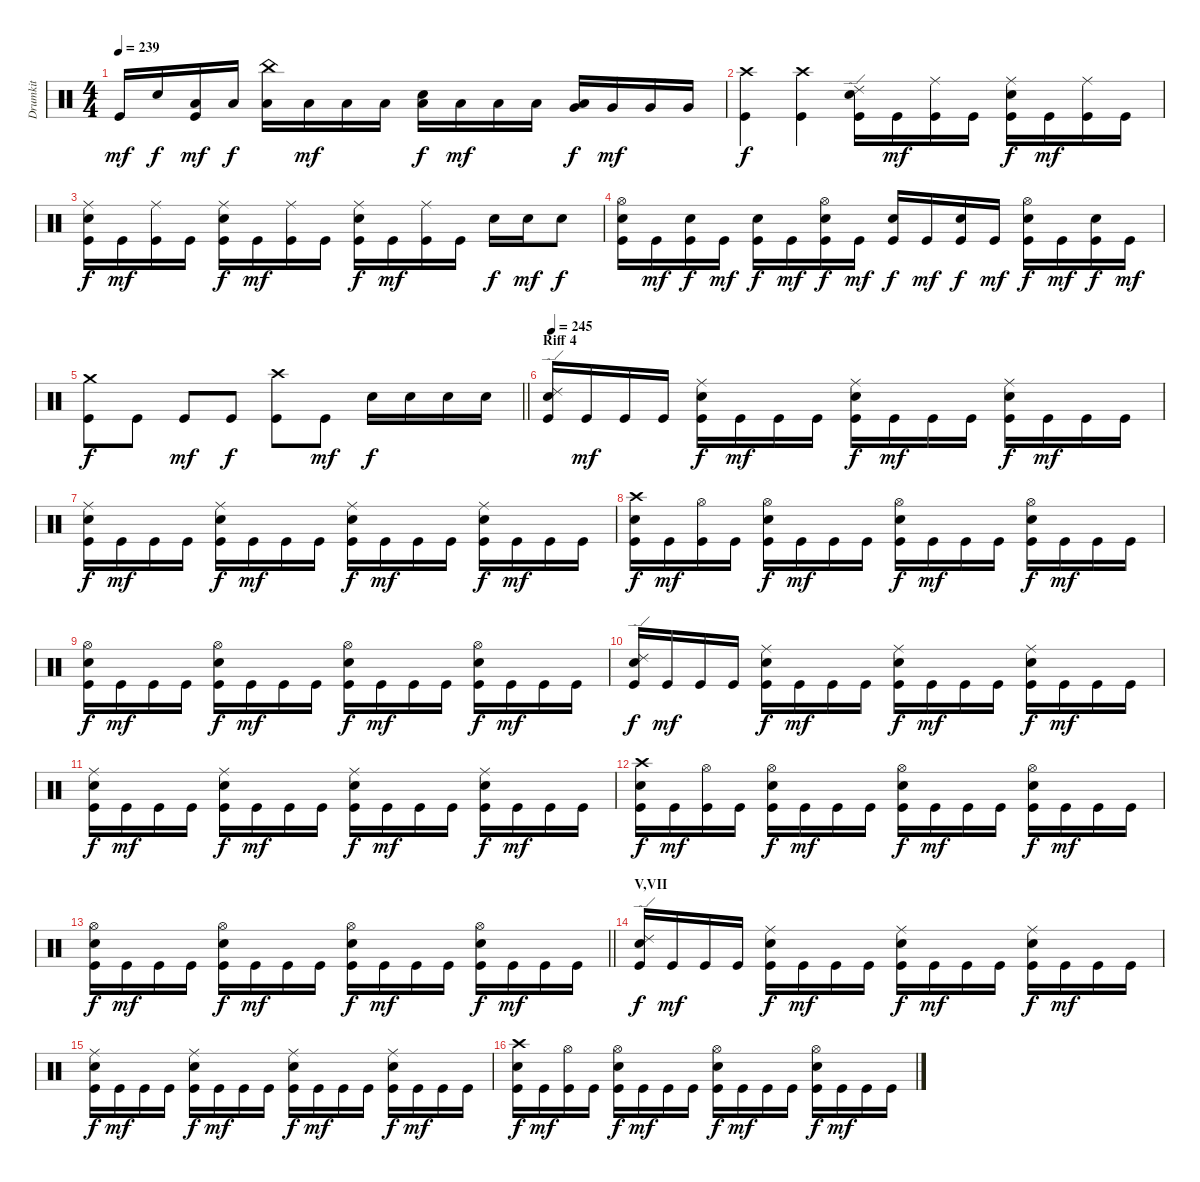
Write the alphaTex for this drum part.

\track ("Drumkit" "Drumkit") {instrument percussion}
\staff {score}
\articulation defaults
\ts (4 4)
\tempo 239
\clef neutral
\ks c "Kick (hit)".16{dy mf} "Snare (hit) 2".16{dy f}
("Kick (hit)" "Low Tom (hit)").16{dy mf} "Low Tom (hit)".16{dy f} ("Low Tom (hit)" "China (hit)").16 "Low Tom (hit)".16{dy mf} "Low Tom (hit)".16 "Low Tom (hit)".16 ("Low Tom (hit)" "Snare (hit) 2").16{dy f} "Low Tom (hit)".16{dy mf} "Low Tom (hit)".16 "Low Tom (hit)".16 ("Very Low Tom (hit)" "Low Floor Tom (hit)").16{dy f} "Very Low Tom (hit)".16{dy mf} "Very Low Tom (hit)".16 "Very Low Tom (hit)".16 |
("Kick (hit)" "Crash high (hit)").4{dy f} ("Kick (hit)" "Crash high (hit)").4 ("Kick (hit)" "Snare (hit) 2" "Ride (edge) 2").16 "Kick (hit)".16{dy mf} ("Kick (hit)" "Ride (middle)").16 "Kick (hit)".16 ("Kick (hit)" "Snare (hit) 2" "Ride (middle)").16{dy f} "Kick (hit)".16{dy mf} ("Kick (hit)" "Ride (middle)").16 "Kick (hit)".16 |
("Kick (hit)" "Snare (hit) 2" "Ride (middle)").16{dy f} "Kick (hit)".16{dy mf} ("Kick (hit)" "Ride (middle)").16 "Kick (hit)".16 ("Kick (hit)" "Snare (hit) 2" "Ride (middle)").16{dy f} "Kick (hit)".16{dy mf} ("Kick (hit)" "Ride (middle)").16 "Kick (hit)".16 ("Kick (hit)" "Snare (hit) 2" "Ride (middle)").16{dy f} "Kick (hit)".16{dy mf} ("Kick (hit)" "Ride (middle)").16 "Kick (hit)".16 "Snare (hit) 2".16{dy f} "Snare (hit) 2".16{dy mf} "Snare (hit) 2".8{dy f} |
("Snare (hit) 2" "Kick (hit)" "Hi-Hat (open)").16 "Kick (hit)".16{dy mf} ("Snare (hit) 2" "Kick (hit)").16{dy f} "Kick (hit)".16{dy mf} ("Snare (hit) 2" "Kick (hit)").16{dy f} "Kick (hit)".16{dy mf} ("Snare (hit) 2" "Kick (hit)" "Hi-Hat (open)").16{dy f} "Kick (hit)".16{dy mf} ("Snare (hit) 2" "Kick (hit)").16{dy f} "Kick (hit)".16{dy mf} ("Snare (hit) 2" "Kick (hit)").16{dy f} "Kick (hit)".16{dy mf} ("Snare (hit) 2" "Kick (hit)" "Hi-Hat (open)").16{dy f} "Kick (hit)".16{dy mf} ("Snare (hit) 2" "Kick (hit)").16{dy f} "Kick (hit)".16{dy mf} |
\barLineRight lightlight
("Kick (hit)" "Crash medium (hit)").8{dy f} "Kick (hit)".8 "Kick (hit)".8{dy mf} "Kick (hit)".8{dy f} ("Kick (hit)" "Crash high (hit)").8 "Kick (hit)".8{dy mf} "Snare (hit) 2".16{dy f} "Snare (hit) 2".16 "Snare (hit) 2".16 "Snare (hit) 2".16 |
\section ("" "Riff 4")
\tempo 245
("Kick (hit)" "Snare (hit) 2" "Ride (edge) 2").16 "Kick (hit)".16{dy mf} "Kick (hit)".16 "Kick (hit)".16 ("Kick (hit)" "Snare (hit) 2" "Ride (middle)").16{dy f} "Kick (hit)".16{dy mf} "Kick (hit)".16 "Kick (hit)".16 ("Kick (hit)" "Snare (hit) 2" "Ride (middle)").16{dy f} "Kick (hit)".16{dy mf} "Kick (hit)".16 "Kick (hit)".16 ("Kick (hit)" "Snare (hit) 2" "Ride (middle)").16{dy f} "Kick (hit)".16{dy mf} "Kick (hit)".16 "Kick (hit)".16 |
("Kick (hit)" "Snare (hit) 2" "Ride (middle)").16{dy f} "Kick (hit)".16{dy mf} "Kick (hit)".16 "Kick (hit)".16 ("Kick (hit)" "Snare (hit) 2" "Ride (middle)").16{dy f} "Kick (hit)".16{dy mf} "Kick (hit)".16 "Kick (hit)".16 ("Kick (hit)" "Snare (hit) 2" "Ride (middle)").16{dy f} "Kick (hit)".16{dy mf} "Kick (hit)".16 "Kick (hit)".16 ("Kick (hit)" "Snare (hit) 2" "Ride (middle)").16{dy f} "Kick (hit)".16{dy mf} "Kick (hit)".16 "Kick (hit)".16 |
("Kick (hit)" "Snare (hit) 2" "Crash high (hit)").16{dy f} "Kick (hit)".16{dy mf} ("Kick (hit)" "Hi-Hat (open)").16 "Kick (hit)".16 ("Kick (hit)" "Snare (hit) 2" "Hi-Hat (open)").16{dy f} "Kick (hit)".16{dy mf} "Kick (hit)".16 "Kick (hit)".16 ("Kick (hit)" "Snare (hit) 2" "Hi-Hat (open)").16{dy f} "Kick (hit)".16{dy mf} "Kick (hit)".16 "Kick (hit)".16 ("Kick (hit)" "Snare (hit) 2" "Hi-Hat (open)").16{dy f} "Kick (hit)".16{dy mf} "Kick (hit)".16 "Kick (hit)".16 |
("Kick (hit)" "Snare (hit) 2" "Hi-Hat (open)").16{dy f} "Kick (hit)".16{dy mf} "Kick (hit)".16 "Kick (hit)".16 ("Kick (hit)" "Snare (hit) 2" "Hi-Hat (open)").16{dy f} "Kick (hit)".16{dy mf} "Kick (hit)".16 "Kick (hit)".16 ("Kick (hit)" "Snare (hit) 2" "Hi-Hat (open)").16{dy f} "Kick (hit)".16{dy mf} "Kick (hit)".16 "Kick (hit)".16 ("Kick (hit)" "Snare (hit) 2" "Hi-Hat (open)").16{dy f} "Kick (hit)".16{dy mf} "Kick (hit)".16 "Kick (hit)".16 |
("Kick (hit)" "Snare (hit) 2" "Ride (edge) 2").16{dy f} "Kick (hit)".16{dy mf} "Kick (hit)".16 "Kick (hit)".16 ("Kick (hit)" "Snare (hit) 2" "Ride (middle)").16{dy f} "Kick (hit)".16{dy mf} "Kick (hit)".16 "Kick (hit)".16 ("Kick (hit)" "Snare (hit) 2" "Ride (middle)").16{dy f} "Kick (hit)".16{dy mf} "Kick (hit)".16 "Kick (hit)".16 ("Kick (hit)" "Snare (hit) 2" "Ride (middle)").16{dy f} "Kick (hit)".16{dy mf} "Kick (hit)".16 "Kick (hit)".16 |
("Kick (hit)" "Snare (hit) 2" "Ride (middle)").16{dy f} "Kick (hit)".16{dy mf} "Kick (hit)".16 "Kick (hit)".16 ("Kick (hit)" "Snare (hit) 2" "Ride (middle)").16{dy f} "Kick (hit)".16{dy mf} "Kick (hit)".16 "Kick (hit)".16 ("Kick (hit)" "Snare (hit) 2" "Ride (middle)").16{dy f} "Kick (hit)".16{dy mf} "Kick (hit)".16 "Kick (hit)".16 ("Kick (hit)" "Snare (hit) 2" "Ride (middle)").16{dy f} "Kick (hit)".16{dy mf} "Kick (hit)".16 "Kick (hit)".16 |
("Kick (hit)" "Snare (hit) 2" "Crash high (hit)").16{dy f} "Kick (hit)".16{dy mf} ("Kick (hit)" "Hi-Hat (open)").16 "Kick (hit)".16 ("Kick (hit)" "Snare (hit) 2" "Hi-Hat (open)").16{dy f} "Kick (hit)".16{dy mf} "Kick (hit)".16 "Kick (hit)".16 ("Kick (hit)" "Snare (hit) 2" "Hi-Hat (open)").16{dy f} "Kick (hit)".16{dy mf} "Kick (hit)".16 "Kick (hit)".16 ("Kick (hit)" "Snare (hit) 2" "Hi-Hat (open)").16{dy f} "Kick (hit)".16{dy mf} "Kick (hit)".16 "Kick (hit)".16 |
\barLineRight lightlight
("Kick (hit)" "Snare (hit) 2" "Hi-Hat (open)").16{dy f} "Kick (hit)".16{dy mf} "Kick (hit)".16 "Kick (hit)".16 ("Kick (hit)" "Snare (hit) 2" "Hi-Hat (open)").16{dy f} "Kick (hit)".16{dy mf} "Kick (hit)".16 "Kick (hit)".16 ("Kick (hit)" "Snare (hit) 2" "Hi-Hat (open)").16{dy f} "Kick (hit)".16{dy mf} "Kick (hit)".16 "Kick (hit)".16 ("Kick (hit)" "Snare (hit) 2" "Hi-Hat (open)").16{dy f} "Kick (hit)".16{dy mf} "Kick (hit)".16 "Kick (hit)".16 |
\section ("" "V,VII")
("Kick (hit)" "Snare (hit) 2" "Ride (edge) 2").16{dy f} "Kick (hit)".16{dy mf} "Kick (hit)".16 "Kick (hit)".16 ("Kick (hit)" "Snare (hit) 2" "Ride (middle)").16{dy f} "Kick (hit)".16{dy mf} "Kick (hit)".16 "Kick (hit)".16 ("Kick (hit)" "Snare (hit) 2" "Ride (middle)").16{dy f} "Kick (hit)".16{dy mf} "Kick (hit)".16 "Kick (hit)".16 ("Kick (hit)" "Snare (hit) 2" "Ride (middle)").16{dy f} "Kick (hit)".16{dy mf} "Kick (hit)".16 "Kick (hit)".16 |
("Kick (hit)" "Snare (hit) 2" "Ride (middle)").16{dy f} "Kick (hit)".16{dy mf} "Kick (hit)".16 "Kick (hit)".16 ("Kick (hit)" "Snare (hit) 2" "Ride (middle)").16{dy f} "Kick (hit)".16{dy mf} "Kick (hit)".16 "Kick (hit)".16 ("Kick (hit)" "Snare (hit) 2" "Ride (middle)").16{dy f} "Kick (hit)".16{dy mf} "Kick (hit)".16 "Kick (hit)".16 ("Kick (hit)" "Snare (hit) 2" "Ride (middle)").16{dy f} "Kick (hit)".16{dy mf} "Kick (hit)".16 "Kick (hit)".16 |
("Kick (hit)" "Snare (hit) 2" "Crash high (hit)").16{dy f} "Kick (hit)".16{dy mf} ("Kick (hit)" "Hi-Hat (open)").16 "Kick (hit)".16 ("Kick (hit)" "Snare (hit) 2" "Hi-Hat (open)").16{dy f} "Kick (hit)".16{dy mf} "Kick (hit)".16 "Kick (hit)".16 ("Kick (hit)" "Snare (hit) 2" "Hi-Hat (open)").16{dy f} "Kick (hit)".16{dy mf} "Kick (hit)".16 "Kick (hit)".16 ("Kick (hit)" "Snare (hit) 2" "Hi-Hat (open)").16{dy f} "Kick (hit)".16{dy mf} "Kick (hit)".16 "Kick (hit)".16
